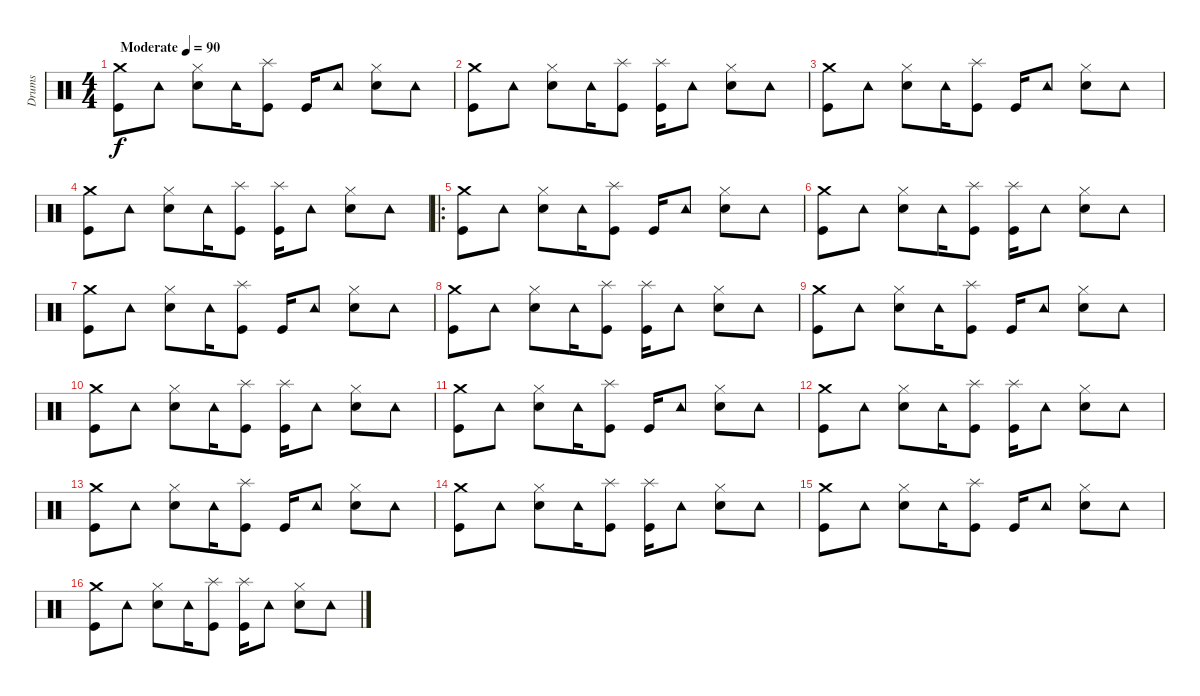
\track ("Drums" "Drums") {instrument percussion}
\staff {score}
\articulation defaults
\ts (4 4)
\tempo (90 "Moderate")
\clef neutral
\ks c
("Crash medium (hit)" "Kick (hit)").8{dy f} "Tambourine (hit)".8 ("Hi-Hat (closed)" "Electric Snare (hit)").8 "Tambourine (hit)".16 ("Splash (hit)" "Kick (hit)").8 "Kick (hit)".16 "Tambourine (hit)".8 ("Hi-Hat (closed)" "Electric Snare (hit)").8 "Tambourine (hit)".8 |
("Crash medium (hit)" "Kick (hit)").8 "Tambourine (hit)".8 ("Hi-Hat (closed)" "Electric Snare (hit)").8 "Tambourine (hit)".16 ("Splash (hit)" "Kick (hit)").8 ("Splash (hit)" "Kick (hit)").16 "Tambourine (hit)".8 ("Hi-Hat (closed)" "Electric Snare (hit)").8 "Tambourine (hit)".8 |
("Crash medium (hit)" "Kick (hit)").8 "Tambourine (hit)".8 ("Hi-Hat (closed)" "Electric Snare (hit)").8 "Tambourine (hit)".16 ("Splash (hit)" "Kick (hit)").8 "Kick (hit)".16 "Tambourine (hit)".8 ("Hi-Hat (closed)" "Electric Snare (hit)").8 "Tambourine (hit)".8 |
("Crash medium (hit)" "Kick (hit)").8 "Tambourine (hit)".8 ("Hi-Hat (closed)" "Electric Snare (hit)").8 "Tambourine (hit)".16 ("Splash (hit)" "Kick (hit)").8 ("Splash (hit)" "Kick (hit)").16 "Tambourine (hit)".8 ("Hi-Hat (closed)" "Electric Snare (hit)").8 "Tambourine (hit)".8 |
\ro
("Crash medium (hit)" "Kick (hit)").8 "Tambourine (hit)".8 ("Hi-Hat (closed)" "Electric Snare (hit)").8 "Tambourine (hit)".16 ("Splash (hit)" "Kick (hit)").8 "Kick (hit)".16 "Tambourine (hit)".8 ("Hi-Hat (closed)" "Electric Snare (hit)").8 "Tambourine (hit)".8 |
("Crash medium (hit)" "Kick (hit)").8 "Tambourine (hit)".8 ("Hi-Hat (closed)" "Electric Snare (hit)").8 "Tambourine (hit)".16 ("Splash (hit)" "Kick (hit)").8 ("Splash (hit)" "Kick (hit)").16 "Tambourine (hit)".8 ("Hi-Hat (closed)" "Electric Snare (hit)").8 "Tambourine (hit)".8 |
("Crash medium (hit)" "Kick (hit)").8 "Tambourine (hit)".8 ("Hi-Hat (closed)" "Electric Snare (hit)").8 "Tambourine (hit)".16 ("Splash (hit)" "Kick (hit)").8 "Kick (hit)".16 "Tambourine (hit)".8 ("Hi-Hat (closed)" "Electric Snare (hit)").8 "Tambourine (hit)".8 |
("Crash medium (hit)" "Kick (hit)").8 "Tambourine (hit)".8 ("Hi-Hat (closed)" "Electric Snare (hit)").8 "Tambourine (hit)".16 ("Splash (hit)" "Kick (hit)").8 ("Splash (hit)" "Kick (hit)").16 "Tambourine (hit)".8 ("Hi-Hat (closed)" "Electric Snare (hit)").8 "Tambourine (hit)".8 |
("Crash medium (hit)" "Kick (hit)").8 "Tambourine (hit)".8 ("Hi-Hat (closed)" "Electric Snare (hit)").8 "Tambourine (hit)".16 ("Splash (hit)" "Kick (hit)").8 "Kick (hit)".16 "Tambourine (hit)".8 ("Hi-Hat (closed)" "Electric Snare (hit)").8 "Tambourine (hit)".8 |
("Crash medium (hit)" "Kick (hit)").8 "Tambourine (hit)".8 ("Hi-Hat (closed)" "Electric Snare (hit)").8 "Tambourine (hit)".16 ("Splash (hit)" "Kick (hit)").8 ("Splash (hit)" "Kick (hit)").16 "Tambourine (hit)".8 ("Hi-Hat (closed)" "Electric Snare (hit)").8 "Tambourine (hit)".8 |
("Crash medium (hit)" "Kick (hit)").8 "Tambourine (hit)".8 ("Hi-Hat (closed)" "Electric Snare (hit)").8 "Tambourine (hit)".16 ("Splash (hit)" "Kick (hit)").8 "Kick (hit)".16 "Tambourine (hit)".8 ("Hi-Hat (closed)" "Electric Snare (hit)").8 "Tambourine (hit)".8 |
("Crash medium (hit)" "Kick (hit)").8 "Tambourine (hit)".8 ("Hi-Hat (closed)" "Electric Snare (hit)").8 "Tambourine (hit)".16 ("Splash (hit)" "Kick (hit)").8 ("Splash (hit)" "Kick (hit)").16 "Tambourine (hit)".8 ("Hi-Hat (closed)" "Electric Snare (hit)").8 "Tambourine (hit)".8 |
("Crash medium (hit)" "Kick (hit)").8 "Tambourine (hit)".8 ("Hi-Hat (closed)" "Electric Snare (hit)").8 "Tambourine (hit)".16 ("Splash (hit)" "Kick (hit)").8 "Kick (hit)".16 "Tambourine (hit)".8 ("Hi-Hat (closed)" "Electric Snare (hit)").8 "Tambourine (hit)".8 |
("Crash medium (hit)" "Kick (hit)").8 "Tambourine (hit)".8 ("Hi-Hat (closed)" "Electric Snare (hit)").8 "Tambourine (hit)".16 ("Splash (hit)" "Kick (hit)").8 ("Splash (hit)" "Kick (hit)").16 "Tambourine (hit)".8 ("Hi-Hat (closed)" "Electric Snare (hit)").8 "Tambourine (hit)".8 |
("Crash medium (hit)" "Kick (hit)").8 "Tambourine (hit)".8 ("Hi-Hat (closed)" "Electric Snare (hit)").8 "Tambourine (hit)".16 ("Splash (hit)" "Kick (hit)").8 "Kick (hit)".16 "Tambourine (hit)".8 ("Hi-Hat (closed)" "Electric Snare (hit)").8 "Tambourine (hit)".8 |
("Crash medium (hit)" "Kick (hit)").8 "Tambourine (hit)".8 ("Hi-Hat (closed)" "Electric Snare (hit)").8 "Tambourine (hit)".16 ("Splash (hit)" "Kick (hit)").8 ("Splash (hit)" "Kick (hit)").16 "Tambourine (hit)".8 ("Hi-Hat (closed)" "Electric Snare (hit)").8 "Tambourine (hit)".8
